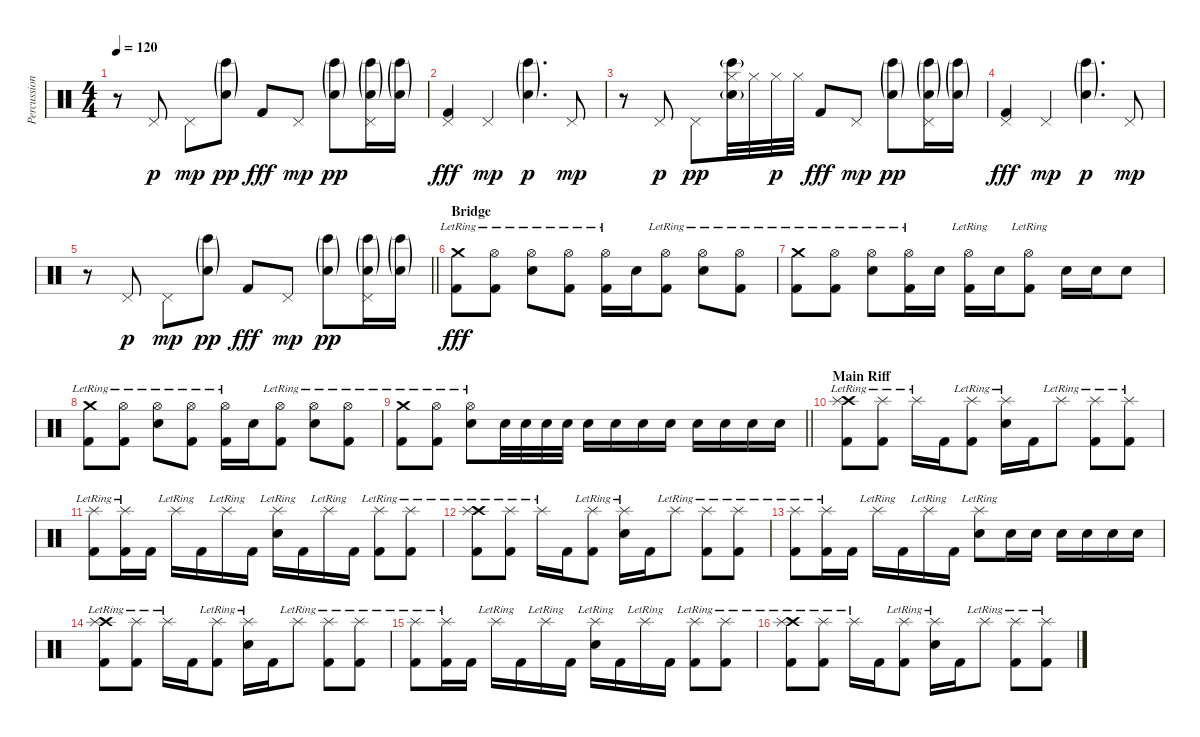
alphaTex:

\track ("Percussions" "Percussion") {instrument percussion}
\staff {score}
\articulation defaults
\ts (4 4)
\tempo 120
\clef neutral
\ks c
r.8{dy mp} "Pedal Hi-Hat (hit)".8{dy p} "Pedal Hi-Hat (hit)".8{dy mp} ("Bongo High (hit)"{g} "Electric Snare (hit)"{g}).8{dy pp} "Kick (hit) 2".8{dy fff} "Pedal Hi-Hat (hit)".8{dy mp} ("Bongo High (hit)"{g} "Electric Snare (hit)"{g}).8{dy pp} ("Pedal Hi-Hat (hit)" "Bongo High (hit)"{g} "Electric Snare (hit)"{g}).16 ("Bongo High (hit)"{g} "Electric Snare (hit)"{g}).16 |
("Pedal Hi-Hat (hit)" "Kick (hit) 2").4{dy fff} "Pedal Hi-Hat (hit)".4{dy mp} ("Bongo High (hit)"{g} "Electric Snare (hit)"{g}).4{d dy p} "Pedal Hi-Hat (hit)".8{dy mp} |
r.8 "Pedal Hi-Hat (hit)".8{dy p} "Pedal Hi-Hat (hit)".8{dy pp} ("Hi-Hat (closed)" "Bongo High (hit)"{g} "Electric Snare (hit)"{g}).32 "Hi-Hat (closed)".32 "Hi-Hat (closed)".32{dy p} "Hi-Hat (closed)".32 "Kick (hit) 2".8{dy fff} "Pedal Hi-Hat (hit)".8{dy mp} ("Bongo High (hit)"{g} "Electric Snare (hit)"{g}).8{dy pp} ("Pedal Hi-Hat (hit)" "Bongo High (hit)"{g} "Electric Snare (hit)"{g}).16 ("Bongo High (hit)"{g} "Electric Snare (hit)"{g}).16 |
("Pedal Hi-Hat (hit)" "Kick (hit) 2").4{dy fff} "Pedal Hi-Hat (hit)".4{dy mp} ("Bongo High (hit)"{g} "Electric Snare (hit)"{g}).4{d dy p} "Pedal Hi-Hat (hit)".8{dy mp} |
\barLineRight lightlight
r.8 "Pedal Hi-Hat (hit)".8{dy p} "Pedal Hi-Hat (hit)".8{dy mp} ("Bongo High (hit)"{g} "Electric Snare (hit)"{g}).8{dy pp} "Kick (hit) 2".8{dy fff} "Pedal Hi-Hat (hit)".8{dy mp} ("Bongo High (hit)"{g} "Electric Snare (hit)"{g}).8{dy pp} ("Pedal Hi-Hat (hit)" "Bongo High (hit)"{g} "Electric Snare (hit)"{g}).16 ("Bongo High (hit)"{g} "Electric Snare (hit)"{g}).16 |
\section ("" "Bridge")
("Crash medium (hit)"{lr} "Kick (hit) 2").8{dy fff} ("Hi-Hat (open)"{lr} "Kick (hit) 2").8 ("Hi-Hat (open)"{lr} "Electric Snare (hit)").8 ("Hi-Hat (open)"{lr} "Kick (hit) 2").8 ("Hi-Hat (open)"{lr} "Kick (hit) 2").16 "Electric Snare (hit)".16 ("Hi-Hat (open)"{lr} "Kick (hit) 2").8 ("Hi-Hat (open)"{lr} "Electric Snare (hit)").8 ("Hi-Hat (open)"{lr} "Kick (hit) 2").8 |
("Crash medium (hit)"{lr} "Kick (hit) 2").8 ("Hi-Hat (open)"{lr} "Kick (hit) 2").8 ("Hi-Hat (open)"{lr} "Electric Snare (hit)").8 ("Hi-Hat (open)"{lr} "Kick (hit) 2").16 "Electric Snare (hit)".16 ("Hi-Hat (open)"{lr} "Kick (hit) 2").16 "Electric Snare (hit)".16 ("Hi-Hat (open)"{lr} "Kick (hit) 2").8 "Electric Snare (hit)".16 "Electric Snare (hit)".16 "Electric Snare (hit)".8 |
("Crash medium (hit)"{lr} "Kick (hit) 2").8 ("Hi-Hat (open)"{lr} "Kick (hit) 2").8 ("Hi-Hat (open)"{lr} "Electric Snare (hit)").8 ("Hi-Hat (open)"{lr} "Kick (hit) 2").8 ("Hi-Hat (open)"{lr} "Kick (hit) 2").16 "Electric Snare (hit)".16 ("Hi-Hat (open)"{lr} "Kick (hit) 2").8 ("Hi-Hat (open)"{lr} "Electric Snare (hit)").8 ("Hi-Hat (open)"{lr} "Kick (hit) 2").8 |
\barLineRight lightlight
("Crash medium (hit)"{lr} "Kick (hit) 2").8 ("Hi-Hat (open)"{lr} "Kick (hit) 2").8 ("Hi-Hat (open)"{lr} "Electric Snare (hit)").8 "Electric Snare (hit)".32 "Electric Snare (hit)".32 "Electric Snare (hit)".32 "Electric Snare (hit)".32 "Electric Snare (hit)".16 "Electric Snare (hit)".16 "Electric Snare (hit)".16 "Electric Snare (hit)".16 "Electric Snare (hit)".16 "Electric Snare (hit)".16 "Electric Snare (hit)".16 "Electric Snare (hit)".16 |
\section ("" "Main Riff")
("Crash high (hit)"{lr} "Splash (hit)"{lr} "Kick (hit) 2").8 ("Splash (hit)"{lr} "Kick (hit) 2").8 "Splash (hit)"{lr}.16 "Kick (hit) 2".16 ("Splash (hit)"{lr} "Kick (hit) 2").8 ("Splash (hit)"{lr} "Electric Snare (hit)").16 "Kick (hit) 2".16 "Splash (hit)"{lr}.8 ("Splash (hit)"{lr} "Kick (hit) 2").8 ("Splash (hit)"{lr} "Kick (hit) 2").8 |
("Splash (hit)"{lr} "Kick (hit) 2").8 ("Splash (hit)"{lr} "Kick (hit) 2").16 "Kick (hit) 2".16 "Splash (hit)"{lr}.16 "Kick (hit) 2".16 "Splash (hit)"{lr}.16 "Kick (hit) 2".16 ("Splash (hit)"{lr} "Electric Snare (hit)").16 "Kick (hit) 2".16 "Splash (hit)"{lr}.16 "Kick (hit) 2".16 ("Splash (hit)"{lr} "Kick (hit) 2").8 ("Splash (hit)"{lr} "Kick (hit) 2").8 |
("Crash high (hit)"{lr} "Splash (hit)"{lr} "Kick (hit) 2").8 ("Splash (hit)"{lr} "Kick (hit) 2").8 "Splash (hit)"{lr}.16 "Kick (hit) 2".16 ("Splash (hit)"{lr} "Kick (hit) 2").8 ("Splash (hit)"{lr} "Electric Snare (hit)").16 "Kick (hit) 2".16 "Splash (hit)"{lr}.8 ("Splash (hit)"{lr} "Kick (hit) 2").8 ("Splash (hit)"{lr} "Kick (hit) 2").8 |
("Splash (hit)"{lr} "Kick (hit) 2").8 ("Splash (hit)"{lr} "Kick (hit) 2").16 "Kick (hit) 2".16 "Splash (hit)"{lr}.16 "Kick (hit) 2".16 "Splash (hit)"{lr}.16 "Kick (hit) 2".16 ("Splash (hit)"{lr} "Electric Snare (hit)").8 "Electric Snare (hit)".16 "Electric Snare (hit)".16 "Electric Snare (hit)".16 "Electric Snare (hit)".16 "Electric Snare (hit)".16 "Electric Snare (hit)".16 |
("Crash high (hit)"{lr} "Splash (hit)"{lr} "Kick (hit) 2").8 ("Splash (hit)"{lr} "Kick (hit) 2").8 "Splash (hit)"{lr}.16 "Kick (hit) 2".16 ("Splash (hit)"{lr} "Kick (hit) 2").8 ("Splash (hit)"{lr} "Electric Snare (hit)").16 "Kick (hit) 2".16 "Splash (hit)"{lr}.8 ("Splash (hit)"{lr} "Kick (hit) 2").8 ("Splash (hit)"{lr} "Kick (hit) 2").8 |
("Splash (hit)"{lr} "Kick (hit) 2").8 ("Splash (hit)"{lr} "Kick (hit) 2").16 "Kick (hit) 2".16 "Splash (hit)"{lr}.16 "Kick (hit) 2".16 "Splash (hit)"{lr}.16 "Kick (hit) 2".16 ("Splash (hit)"{lr} "Electric Snare (hit)").16 "Kick (hit) 2".16 "Splash (hit)"{lr}.16 "Kick (hit) 2".16 ("Splash (hit)"{lr} "Kick (hit) 2").8 ("Splash (hit)"{lr} "Kick (hit) 2").8 |
("Crash high (hit)"{lr} "Splash (hit)"{lr} "Kick (hit) 2").8 ("Splash (hit)"{lr} "Kick (hit) 2").8 "Splash (hit)"{lr}.16 "Kick (hit) 2".16 ("Splash (hit)"{lr} "Kick (hit) 2").8 ("Splash (hit)"{lr} "Electric Snare (hit)").16 "Kick (hit) 2".16 "Splash (hit)"{lr}.8 ("Splash (hit)"{lr} "Kick (hit) 2").8 ("Splash (hit)"{lr} "Kick (hit) 2").8
